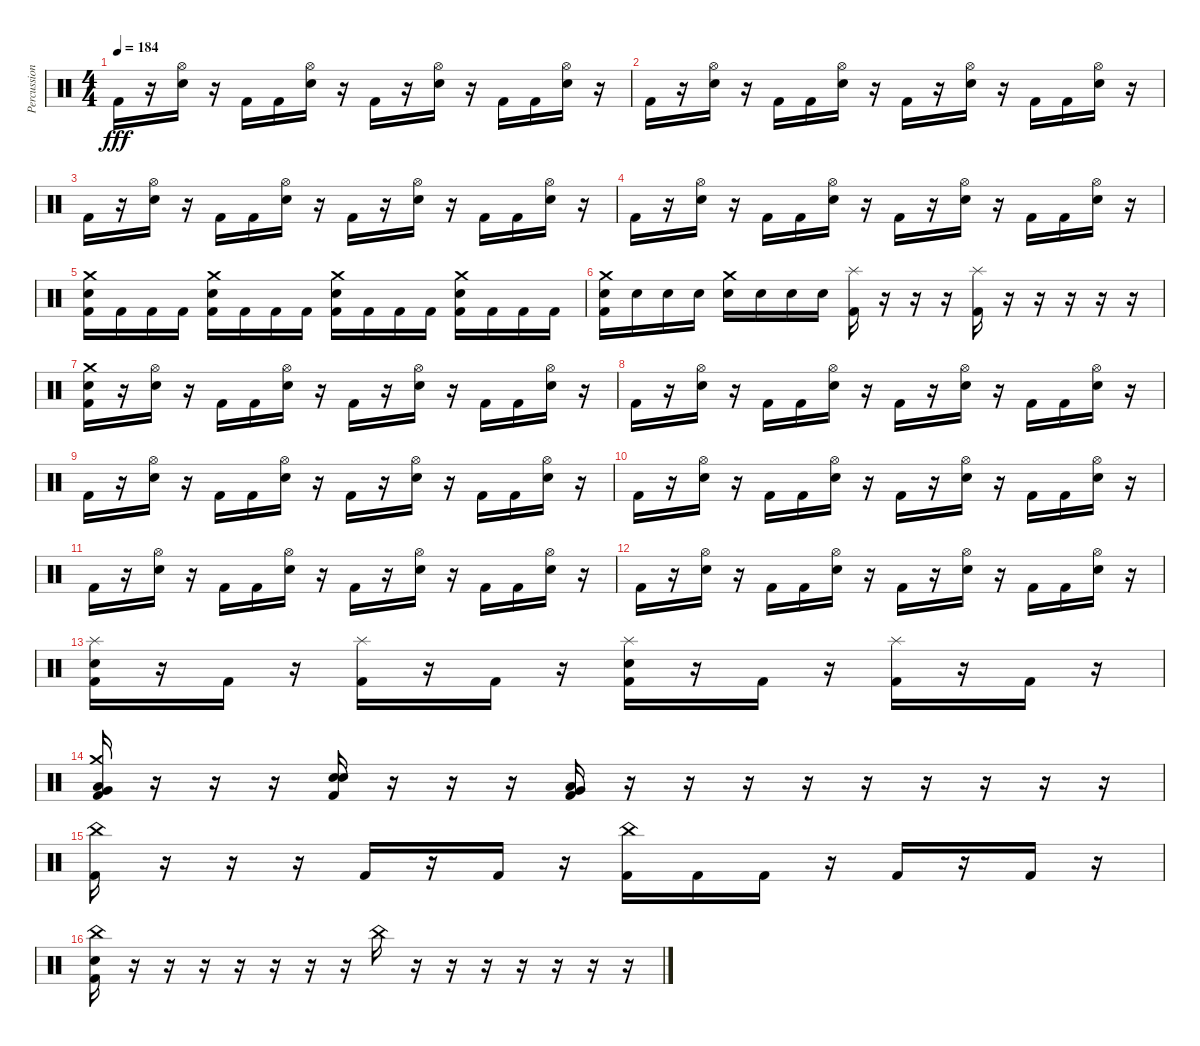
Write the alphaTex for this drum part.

\track ("Percussion" "Percussion") {instrument percussion}
\staff {score}
\articulation defaults
\ts (4 4)
\tempo 184
\clef neutral
\ks c "Kick (hit) 2".16{dy fff}
r.16 ("Hi-Hat (open)" "Snare (hit) 2").16 r.16 "Kick (hit) 2".16 "Kick (hit) 2".16 ("Hi-Hat (open)" "Snare (hit) 2").16 r.16 "Kick (hit) 2".16 r.16 ("Hi-Hat (open)" "Snare (hit) 2").16 r.16 "Kick (hit) 2".16 "Kick (hit) 2".16 ("Hi-Hat (open)" "Snare (hit) 2").16 r.16 |
"Kick (hit) 2".16 r.16 ("Hi-Hat (open)" "Snare (hit) 2").16 r.16 "Kick (hit) 2".16 "Kick (hit) 2".16 ("Hi-Hat (open)" "Snare (hit) 2").16 r.16 "Kick (hit) 2".16 r.16 ("Hi-Hat (open)" "Snare (hit) 2").16 r.16 "Kick (hit) 2".16 "Kick (hit) 2".16 ("Hi-Hat (open)" "Snare (hit) 2").16 r.16 |
"Kick (hit) 2".16 r.16 ("Hi-Hat (open)" "Snare (hit) 2").16 r.16 "Kick (hit) 2".16 "Kick (hit) 2".16 ("Hi-Hat (open)" "Snare (hit) 2").16 r.16 "Kick (hit) 2".16 r.16 ("Hi-Hat (open)" "Snare (hit) 2").16 r.16 "Kick (hit) 2".16 "Kick (hit) 2".16 ("Hi-Hat (open)" "Snare (hit) 2").16 r.16 |
"Kick (hit) 2".16 r.16 ("Hi-Hat (open)" "Snare (hit) 2").16 r.16 "Kick (hit) 2".16 "Kick (hit) 2".16 ("Hi-Hat (open)" "Snare (hit) 2").16 r.16 "Kick (hit) 2".16 r.16 ("Hi-Hat (open)" "Snare (hit) 2").16 r.16 "Kick (hit) 2".16 "Kick (hit) 2".16 ("Hi-Hat (open)" "Snare (hit) 2").16 r.16 |
("Crash medium (hit)" "Snare (hit) 2" "Kick (hit) 2").16 "Kick (hit) 2".16 "Kick (hit) 2".16 "Kick (hit) 2".16 ("Crash medium (hit)" "Snare (hit) 2" "Kick (hit) 2").16 "Kick (hit) 2".16 "Kick (hit) 2".16 "Kick (hit) 2".16 ("Crash medium (hit)" "Snare (hit) 2" "Kick (hit) 2").16 "Kick (hit) 2".16 "Kick (hit) 2".16 "Kick (hit) 2".16 ("Crash medium (hit)" "Snare (hit) 2" "Kick (hit) 2").16 "Kick (hit) 2".16 "Kick (hit) 2".16 "Kick (hit) 2".16 |
("Crash medium (hit)" "Snare (hit) 2" "Kick (hit) 2").16 "Snare (hit) 2".16 "Snare (hit) 2".16 "Snare (hit) 2".16 ("Crash medium (hit)" "Snare (hit) 2").16 "Snare (hit) 2".16 "Snare (hit) 2".16 "Snare (hit) 2".16 ("Splash (hit)" "Kick (hit) 2").16 r.16 r.16 r.16 ("Splash (hit)" "Kick (hit) 2").16 r.16 r.16 r.16 r.16 r.16 |
("Crash medium (hit)" "Snare (hit) 2" "Kick (hit) 2").16 r.16 ("Hi-Hat (open)" "Snare (hit) 2").16 r.16 "Kick (hit) 2".16 "Kick (hit) 2".16 ("Hi-Hat (open)" "Snare (hit) 2").16 r.16 "Kick (hit) 2".16 r.16 ("Hi-Hat (open)" "Snare (hit) 2").16 r.16 "Kick (hit) 2".16 "Kick (hit) 2".16 ("Hi-Hat (open)" "Snare (hit) 2").16 r.16 |
"Kick (hit) 2".16 r.16 ("Hi-Hat (open)" "Snare (hit) 2").16 r.16 "Kick (hit) 2".16 "Kick (hit) 2".16 ("Hi-Hat (open)" "Snare (hit) 2").16 r.16 "Kick (hit) 2".16 r.16 ("Hi-Hat (open)" "Snare (hit) 2").16 r.16 "Kick (hit) 2".16 "Kick (hit) 2".16 ("Hi-Hat (open)" "Snare (hit) 2").16 r.16 |
"Kick (hit) 2".16 r.16 ("Hi-Hat (open)" "Snare (hit) 2").16 r.16 "Kick (hit) 2".16 "Kick (hit) 2".16 ("Hi-Hat (open)" "Snare (hit) 2").16 r.16 "Kick (hit) 2".16 r.16 ("Hi-Hat (open)" "Snare (hit) 2").16 r.16 "Kick (hit) 2".16 "Kick (hit) 2".16 ("Hi-Hat (open)" "Snare (hit) 2").16 r.16 |
"Kick (hit) 2".16 r.16 ("Hi-Hat (open)" "Snare (hit) 2").16 r.16 "Kick (hit) 2".16 "Kick (hit) 2".16 ("Hi-Hat (open)" "Snare (hit) 2").16 r.16 "Kick (hit) 2".16 r.16 ("Hi-Hat (open)" "Snare (hit) 2").16 r.16 "Kick (hit) 2".16 "Kick (hit) 2".16 ("Hi-Hat (open)" "Snare (hit) 2").16 r.16 |
"Kick (hit) 2".16 r.16 ("Hi-Hat (open)" "Snare (hit) 2").16 r.16 "Kick (hit) 2".16 "Kick (hit) 2".16 ("Hi-Hat (open)" "Snare (hit) 2").16 r.16 "Kick (hit) 2".16 r.16 ("Hi-Hat (open)" "Snare (hit) 2").16 r.16 "Kick (hit) 2".16 "Kick (hit) 2".16 ("Hi-Hat (open)" "Snare (hit) 2").16 r.16 |
"Kick (hit) 2".16 r.16 ("Hi-Hat (open)" "Snare (hit) 2").16 r.16 "Kick (hit) 2".16 "Kick (hit) 2".16 ("Hi-Hat (open)" "Snare (hit) 2").16 r.16 "Kick (hit) 2".16 r.16 ("Hi-Hat (open)" "Snare (hit) 2").16 r.16 "Kick (hit) 2".16 "Kick (hit) 2".16 ("Hi-Hat (open)" "Snare (hit) 2").16 r.16 |
("Splash (hit)" "Snare (hit) 2" "Kick (hit) 2").16 r.16 "Kick (hit) 2".16 r.16 ("Splash (hit)" "Kick (hit) 2").16 r.16 "Kick (hit) 2".16 r.16 ("Splash (hit)" "Snare (hit) 2" "Kick (hit) 2").16 r.16 "Kick (hit) 2".16 r.16 ("Splash (hit)" "Kick (hit) 2").16 r.16 "Kick (hit) 2".16 r.16 |
("Crash medium (hit)" "Low Tom (hit)" "Very Low Tom (hit)" "Kick (hit) 2").16 r.16 r.16 r.16 ("Snare (hit) 2" "Snare (hit) 2" "Kick (hit) 2").16 r.16 r.16 r.16 ("Very Low Tom (hit)" "Low Floor Tom (hit)" "Kick (hit) 2").16 r.16 r.16 r.16 r.16 r.16 r.16 r.16 r.16 r.16 |
("China (hit)" "Kick (hit) 2").16 r.16 r.16 r.16 "Kick (hit) 2".16 r.16 "Kick (hit) 2".16 r.16 ("China (hit)" "Kick (hit) 2").16 "Kick (hit) 2".16 "Kick (hit) 2".16 r.16 "Kick (hit) 2".16 r.16 "Kick (hit) 2".16 r.16 |
("China (hit)" "Snare (hit) 2" "Kick (hit) 2").16 r.16 r.16 r.16 r.16 r.16 r.16 r.16 "China (hit)".16 r.16 r.16 r.16 r.16 r.16 r.16 r.16
